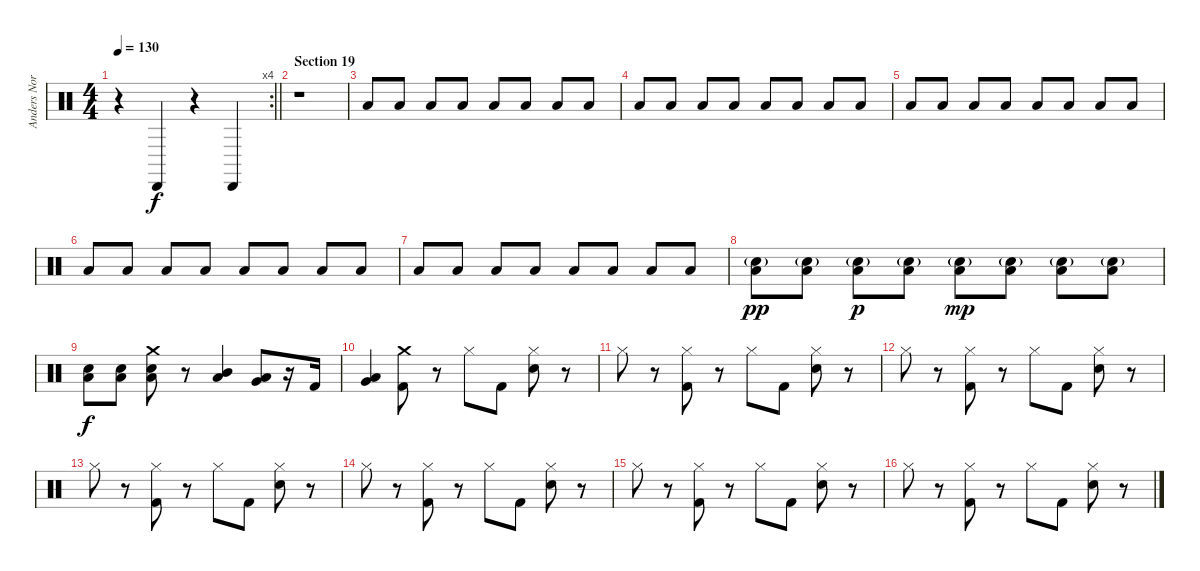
\track ("Anders Nordin" "Anders Nor") {instrument percussion}
\staff {score}
\articulation defaults
\rc 4
\ts (4 4)
\tempo 130
\clef neutral
\barLineRight lightlight
\ks c
r.4{dy f} "Cabasa (hit)".4 r.4 "Cabasa (hit)".4 |
\section ("" "Section 19")
r.1 |
"Low Tom (hit)".8{volume 1} "Low Tom (hit)".8{volume 10} "Low Tom (hit)".8 "Low Tom (hit)".8 "Low Tom (hit)".8 "Low Tom (hit)".8 "Low Tom (hit)".8 "Low Tom (hit)".8 |
"Low Tom (hit)".8 "Low Tom (hit)".8 "Low Tom (hit)".8 "Low Tom (hit)".8 "Low Tom (hit)".8 "Low Tom (hit)".8 "Low Tom (hit)".8 "Low Tom (hit)".8 |
"Low Tom (hit)".8 "Low Tom (hit)".8 "Low Tom (hit)".8 "Low Tom (hit)".8 "Low Tom (hit)".8 "Low Tom (hit)".8 "Low Tom (hit)".8 "Low Tom (hit)".8 |
"Low Tom (hit)".8 "Low Tom (hit)".8 "Low Tom (hit)".8 "Low Tom (hit)".8 "Low Tom (hit)".8 "Low Tom (hit)".8 "Low Tom (hit)".8 "Low Tom (hit)".8 |
"Low Tom (hit)".8{volume 15} "Low Tom (hit)".8 "Low Tom (hit)".8 "Low Tom (hit)".8 "Low Tom (hit)".8 "Low Tom (hit)".8 "Low Tom (hit)".8 "Low Tom (hit)".8 |
("Low Tom (hit)" "Snare (hit) 2"{g}).8{dy pp} ("Low Tom (hit)" "Snare (hit) 2"{g}).8 ("Low Tom (hit)" "Snare (hit) 2"{g}).8{dy p} ("Low Tom (hit)" "Snare (hit) 2"{g}).8 ("Low Tom (hit)" "Snare (hit) 2"{g}).8{dy mp} ("Low Tom (hit)" "Snare (hit) 2"{g}).8 ("Low Tom (hit)" "Snare (hit) 2"{g}).8 ("Low Tom (hit)" "Snare (hit) 2"{g}).8 |
("Low Tom (hit)" "Snare (hit) 2").8{dy f} ("Low Tom (hit)" "Snare (hit) 2").8 ("Low Tom (hit)" "Snare (hit) 2" "Crash medium (hit)").8 r.8 ("Mid Tom (hit)" "Low Tom (hit)").4 ("Low Tom (hit)" "Very Low Tom (hit)").8 r.16 "Kick (hit) 2".16 |
("Very Low Tom (hit)" "Low Floor Tom (hit)").4 ("Crash medium (hit)" "Kick (hit) 2").8 r.8 "Hi-Hat (closed)".8 "Kick (hit) 2".8 ("Hi-Hat (closed)" "Snare (hit) 2").8 r.8 |
"Hi-Hat (closed)".8 r.8 ("Hi-Hat (closed)" "Kick (hit) 2").8 r.8 "Hi-Hat (closed)".8 "Kick (hit) 2".8 ("Hi-Hat (closed)" "Snare (hit) 2").8 r.8 |
"Hi-Hat (closed)".8 r.8 ("Hi-Hat (closed)" "Kick (hit) 2").8 r.8 "Hi-Hat (closed)".8 "Kick (hit) 2".8 ("Hi-Hat (closed)" "Snare (hit) 2").8 r.8 |
"Hi-Hat (closed)".8 r.8 ("Hi-Hat (closed)" "Kick (hit) 2").8 r.8 "Hi-Hat (closed)".8 "Kick (hit) 2".8 ("Hi-Hat (closed)" "Snare (hit) 2").8 r.8 |
"Hi-Hat (closed)".8 r.8 ("Hi-Hat (closed)" "Kick (hit) 2").8 r.8 "Hi-Hat (closed)".8 "Kick (hit) 2".8 ("Hi-Hat (closed)" "Snare (hit) 2").8 r.8 |
"Hi-Hat (closed)".8 r.8 ("Hi-Hat (closed)" "Kick (hit) 2").8 r.8 "Hi-Hat (closed)".8 "Kick (hit) 2".8 ("Hi-Hat (closed)" "Snare (hit) 2").8 r.8 |
"Hi-Hat (closed)".8 r.8 ("Hi-Hat (closed)" "Kick (hit) 2").8 r.8 "Hi-Hat (closed)".8 "Kick (hit) 2".8 ("Hi-Hat (closed)" "Snare (hit) 2").8 r.8
